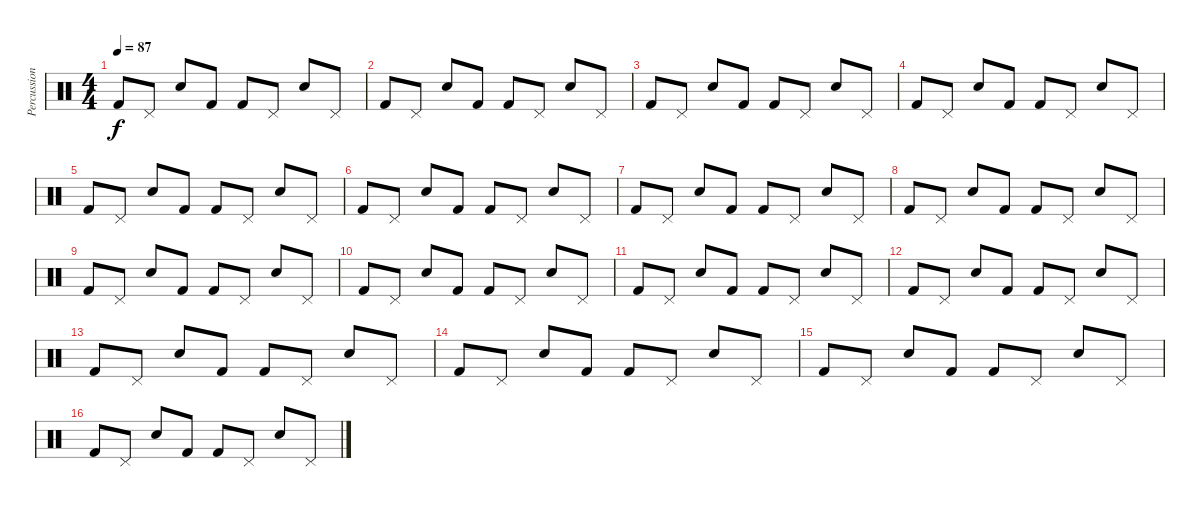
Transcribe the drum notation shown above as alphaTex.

\track ("Percussion" "Percussion") {instrument percussion}
\staff {score}
\articulation defaults
\ts (4 4)
\tempo 87
\clef neutral
\ks c "Kick (hit) 2".8{dy f} "Pedal Hi-Hat (hit)".8 "Electric Snare (hit)".8 "Kick (hit) 2".8 "Kick (hit) 2".8 "Pedal Hi-Hat (hit)".8 "Electric Snare (hit)".8 "Pedal Hi-Hat (hit)".8
|
"Kick (hit) 2".8 "Pedal Hi-Hat (hit)".8 "Electric Snare (hit)".8 "Kick (hit) 2".8 "Kick (hit) 2".8 "Pedal Hi-Hat (hit)".8 "Electric Snare (hit)".8 "Pedal Hi-Hat (hit)".8 |
"Kick (hit) 2".8 "Pedal Hi-Hat (hit)".8 "Electric Snare (hit)".8 "Kick (hit) 2".8 "Kick (hit) 2".8 "Pedal Hi-Hat (hit)".8 "Electric Snare (hit)".8 "Pedal Hi-Hat (hit)".8 |
"Kick (hit) 2".8 "Pedal Hi-Hat (hit)".8 "Electric Snare (hit)".8 "Kick (hit) 2".8 "Kick (hit) 2".8 "Pedal Hi-Hat (hit)".8 "Electric Snare (hit)".8 "Pedal Hi-Hat (hit)".8 |
"Kick (hit) 2".8 "Pedal Hi-Hat (hit)".8 "Electric Snare (hit)".8 "Kick (hit) 2".8 "Kick (hit) 2".8 "Pedal Hi-Hat (hit)".8 "Electric Snare (hit)".8 "Pedal Hi-Hat (hit)".8 |
"Kick (hit) 2".8 "Pedal Hi-Hat (hit)".8 "Electric Snare (hit)".8 "Kick (hit) 2".8 "Kick (hit) 2".8 "Pedal Hi-Hat (hit)".8 "Electric Snare (hit)".8 "Pedal Hi-Hat (hit)".8 |
"Kick (hit) 2".8 "Pedal Hi-Hat (hit)".8 "Electric Snare (hit)".8 "Kick (hit) 2".8 "Kick (hit) 2".8 "Pedal Hi-Hat (hit)".8 "Electric Snare (hit)".8 "Pedal Hi-Hat (hit)".8 |
"Kick (hit) 2".8 "Pedal Hi-Hat (hit)".8 "Electric Snare (hit)".8 "Kick (hit) 2".8 "Kick (hit) 2".8 "Pedal Hi-Hat (hit)".8 "Electric Snare (hit)".8 "Pedal Hi-Hat (hit)".8 |
"Kick (hit) 2".8 "Pedal Hi-Hat (hit)".8 "Electric Snare (hit)".8 "Kick (hit) 2".8 "Kick (hit) 2".8 "Pedal Hi-Hat (hit)".8 "Electric Snare (hit)".8 "Pedal Hi-Hat (hit)".8 |
"Kick (hit) 2".8 "Pedal Hi-Hat (hit)".8 "Electric Snare (hit)".8 "Kick (hit) 2".8 "Kick (hit) 2".8 "Pedal Hi-Hat (hit)".8 "Electric Snare (hit)".8 "Pedal Hi-Hat (hit)".8 |
"Kick (hit) 2".8 "Pedal Hi-Hat (hit)".8 "Electric Snare (hit)".8 "Kick (hit) 2".8 "Kick (hit) 2".8 "Pedal Hi-Hat (hit)".8 "Electric Snare (hit)".8 "Pedal Hi-Hat (hit)".8 |
"Kick (hit) 2".8 "Pedal Hi-Hat (hit)".8 "Electric Snare (hit)".8 "Kick (hit) 2".8 "Kick (hit) 2".8 "Pedal Hi-Hat (hit)".8 "Electric Snare (hit)".8 "Pedal Hi-Hat (hit)".8 |
"Kick (hit) 2".8 "Pedal Hi-Hat (hit)".8 "Electric Snare (hit)".8 "Kick (hit) 2".8 "Kick (hit) 2".8 "Pedal Hi-Hat (hit)".8 "Electric Snare (hit)".8 "Pedal Hi-Hat (hit)".8 |
"Kick (hit) 2".8 "Pedal Hi-Hat (hit)".8 "Electric Snare (hit)".8 "Kick (hit) 2".8 "Kick (hit) 2".8 "Pedal Hi-Hat (hit)".8 "Electric Snare (hit)".8 "Pedal Hi-Hat (hit)".8 |
"Kick (hit) 2".8 "Pedal Hi-Hat (hit)".8 "Electric Snare (hit)".8 "Kick (hit) 2".8 "Kick (hit) 2".8 "Pedal Hi-Hat (hit)".8 "Electric Snare (hit)".8 "Pedal Hi-Hat (hit)".8 |
"Kick (hit) 2".8 "Pedal Hi-Hat (hit)".8 "Electric Snare (hit)".8 "Kick (hit) 2".8 "Kick (hit) 2".8 "Pedal Hi-Hat (hit)".8 "Electric Snare (hit)".8 "Pedal Hi-Hat (hit)".8
